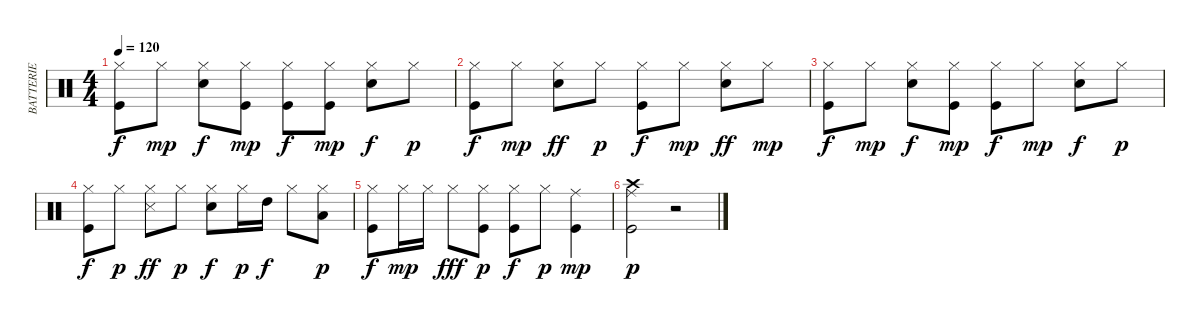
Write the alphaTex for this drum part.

\track ("BATTERIE" "BATTERIE") {instrument percussion}
\staff {score}
\articulation defaults
\ts (4 4)
\tempo 120
\clef neutral
\ks c
("Kick (hit)" "Hi-Hat (closed)").8{dy f} "Hi-Hat (closed)".8{dy mp} ("Snare (hit) 2" "Hi-Hat (closed)").8{dy f} ("Kick (hit)" "Hi-Hat (closed)").8{dy mp} ("Kick (hit)" "Hi-Hat (closed)").8{dy f} ("Kick (hit)" "Hi-Hat (closed)").8{dy mp} ("Snare (hit) 2" "Hi-Hat (closed)").8{dy f} "Hi-Hat (closed)".8{dy p} |
("Kick (hit)" "Hi-Hat (closed)").8{dy f} "Hi-Hat (closed)".8{dy mp} ("Snare (hit) 2" "Hi-Hat (closed)").8{dy ff} "Hi-Hat (closed)".8{dy p} ("Kick (hit)" "Hi-Hat (closed)").8{dy f} "Hi-Hat (closed)".8{dy mp} ("Snare (hit) 2" "Hi-Hat (closed)").8{dy ff} "Hi-Hat (closed)".8{dy mp} |
("Kick (hit)" "Hi-Hat (closed)").8{dy f} "Hi-Hat (closed)".8{dy mp} ("Snare (hit) 2" "Hi-Hat (closed)").8{dy f} ("Kick (hit)" "Hi-Hat (closed)").8{dy mp} ("Kick (hit)" "Hi-Hat (closed)").8{dy f} "Hi-Hat (closed)".8{dy mp} ("Snare (hit) 2" "Hi-Hat (closed)").8{dy f} "Hi-Hat (closed)".8{dy p} |
("Kick (hit)" "Hi-Hat (closed)").8{dy f} "Hi-Hat (closed)".8{dy p} ("Hi-Hat (closed)" "Snare (side stick) 3").8{dy ff} "Hi-Hat (closed)".8{dy p} ("Snare (hit) 2" "Hi-Hat (closed)").8{dy f} "Hi-Hat (closed)".16{dy p} "High Tom (hit)".16{dy f} "Hi-Hat (closed)".8 ("Hi-Hat (closed)" "Low Tom (hit)").8{dy p} |
("Kick (hit)" "Hi-Hat (closed)").8{dy f} "Hi-Hat (closed)".16{dy mp} "Hi-Hat (closed)".16 "Hi-Hat (closed)".8{dy fff} ("Kick (hit)" "Hi-Hat (closed)").8{dy p} ("Kick (hit)" "Hi-Hat (closed)").8{dy f} "Hi-Hat (closed)".8{dy p} ("Kick (hit)" "Ride (middle)").4{dy mp} |
("Kick (hit)" "Ride (middle)" "Crash high (hit)").2{dy p} r.2
